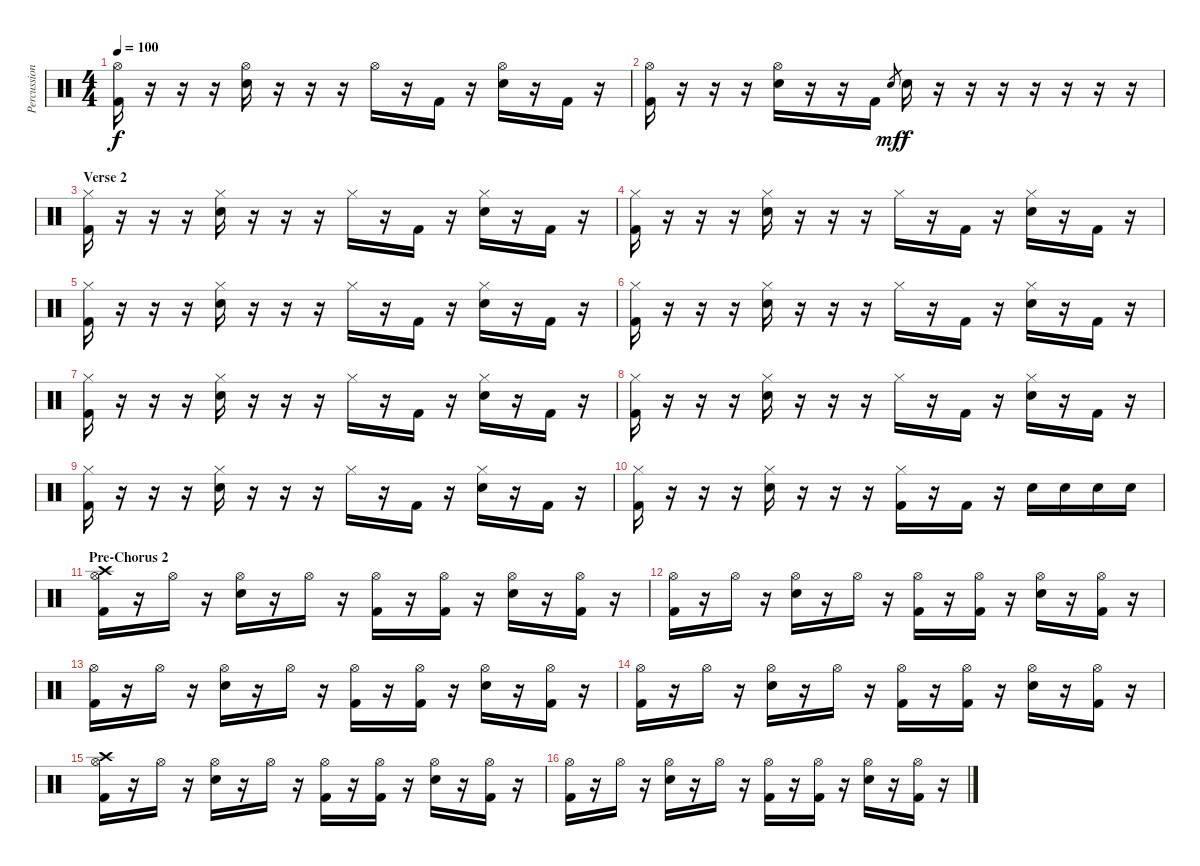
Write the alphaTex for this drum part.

\track ("Percussion" "Percussion") {instrument percussion}
\staff {score}
\articulation defaults
\ts (4 4)
\tempo 100
\clef neutral
\ks c
("Kick (hit) 2" "Hi-Hat (open)").16{dy f} r.16 r.16 r.16 ("Snare (hit) 2" "Hi-Hat (open)").16 r.16 r.16 r.16 "Hi-Hat (open)".16 r.16 "Kick (hit) 2".16 r.16 ("Snare (hit) 2" "Hi-Hat (open)").16 r.16 "Kick (hit) 2".16 r.16 |
("Kick (hit) 2" "Hi-Hat (open)").16 r.16 r.16 r.16 ("Snare (hit) 2" "Hi-Hat (open)").16 r.16 r.16 "Kick (hit) 2".16 "Snare (hit) 2".8{gr dy mf} "Snare (hit) 2".16{dy f} r.16 r.16 r.16 r.16 r.16 r.16 r.16 |
\section ("" "Verse 2")
("Kick (hit) 2" "Hi-Hat (closed)").16 r.16 r.16 r.16 ("Snare (hit) 2" "Hi-Hat (closed)").16 r.16 r.16 r.16 "Hi-Hat (closed)".16 r.16 "Kick (hit) 2".16 r.16 ("Snare (hit) 2" "Hi-Hat (closed)").16 r.16 "Kick (hit) 2".16 r.16 |
("Kick (hit) 2" "Hi-Hat (closed)").16 r.16 r.16 r.16 ("Snare (hit) 2" "Hi-Hat (closed)").16 r.16 r.16 r.16 "Hi-Hat (closed)".16 r.16 "Kick (hit) 2".16 r.16 ("Snare (hit) 2" "Hi-Hat (closed)").16 r.16 "Kick (hit) 2".16 r.16 |
("Kick (hit) 2" "Hi-Hat (closed)").16 r.16 r.16 r.16 ("Snare (hit) 2" "Hi-Hat (closed)").16 r.16 r.16 r.16 "Hi-Hat (closed)".16 r.16 "Kick (hit) 2".16 r.16 ("Snare (hit) 2" "Hi-Hat (closed)").16 r.16 "Kick (hit) 2".16 r.16 |
("Kick (hit) 2" "Hi-Hat (closed)").16 r.16 r.16 r.16 ("Snare (hit) 2" "Hi-Hat (closed)").16 r.16 r.16 r.16 "Hi-Hat (closed)".16 r.16 "Kick (hit) 2".16 r.16 ("Snare (hit) 2" "Hi-Hat (closed)").16 r.16 "Kick (hit) 2".16 r.16 |
("Kick (hit) 2" "Hi-Hat (closed)").16 r.16 r.16 r.16 ("Snare (hit) 2" "Hi-Hat (closed)").16 r.16 r.16 r.16 "Hi-Hat (closed)".16 r.16 "Kick (hit) 2".16 r.16 ("Snare (hit) 2" "Hi-Hat (closed)").16 r.16 "Kick (hit) 2".16 r.16 |
("Kick (hit) 2" "Hi-Hat (closed)").16 r.16 r.16 r.16 ("Snare (hit) 2" "Hi-Hat (closed)").16 r.16 r.16 r.16 "Hi-Hat (closed)".16 r.16 "Kick (hit) 2".16 r.16 ("Snare (hit) 2" "Hi-Hat (closed)").16 r.16 "Kick (hit) 2".16 r.16 |
("Kick (hit) 2" "Hi-Hat (closed)").16 r.16 r.16 r.16 ("Snare (hit) 2" "Hi-Hat (closed)").16 r.16 r.16 r.16 "Hi-Hat (closed)".16 r.16 "Kick (hit) 2".16 r.16 ("Snare (hit) 2" "Hi-Hat (closed)").16 r.16 "Kick (hit) 2".16 r.16 |
("Kick (hit) 2" "Hi-Hat (closed)").16 r.16 r.16 r.16 ("Snare (hit) 2" "Hi-Hat (closed)").16 r.16 r.16 r.16 ("Kick (hit) 2" "Hi-Hat (closed)").16 r.16 "Kick (hit) 2".16 r.16 "Snare (hit) 2".16 "Snare (hit) 2".16 "Snare (hit) 2".16 "Snare (hit) 2".16 |
\section ("" "Pre-Chorus 2")
("Kick (hit) 2" "Hi-Hat (open)" "Crash high (hit)").16 r.16 "Hi-Hat (open)".16 r.16 ("Snare (hit) 2" "Hi-Hat (open)").16 r.16 "Hi-Hat (open)".16 r.16 ("Kick (hit) 2" "Hi-Hat (open)").16 r.16 ("Kick (hit) 2" "Hi-Hat (open)").16 r.16 ("Snare (hit) 2" "Hi-Hat (open)").16 r.16 ("Kick (hit) 2" "Hi-Hat (open)").16 r.16 |
("Kick (hit) 2" "Hi-Hat (open)").16 r.16 "Hi-Hat (open)".16 r.16 ("Snare (hit) 2" "Hi-Hat (open)").16 r.16 "Hi-Hat (open)".16 r.16 ("Kick (hit) 2" "Hi-Hat (open)").16 r.16 ("Kick (hit) 2" "Hi-Hat (open)").16 r.16 ("Snare (hit) 2" "Hi-Hat (open)").16 r.16 ("Kick (hit) 2" "Hi-Hat (open)").16 r.16 |
("Kick (hit) 2" "Hi-Hat (open)").16 r.16 "Hi-Hat (open)".16 r.16 ("Snare (hit) 2" "Hi-Hat (open)").16 r.16 "Hi-Hat (open)".16 r.16 ("Kick (hit) 2" "Hi-Hat (open)").16 r.16 ("Kick (hit) 2" "Hi-Hat (open)").16 r.16 ("Snare (hit) 2" "Hi-Hat (open)").16 r.16 ("Kick (hit) 2" "Hi-Hat (open)").16 r.16 |
("Kick (hit) 2" "Hi-Hat (open)").16 r.16 "Hi-Hat (open)".16 r.16 ("Snare (hit) 2" "Hi-Hat (open)").16 r.16 "Hi-Hat (open)".16 r.16 ("Kick (hit) 2" "Hi-Hat (open)").16 r.16 ("Kick (hit) 2" "Hi-Hat (open)").16 r.16 ("Snare (hit) 2" "Hi-Hat (open)").16 r.16 ("Kick (hit) 2" "Hi-Hat (open)").16 r.16 |
("Kick (hit) 2" "Hi-Hat (open)" "Crash high (hit)").16 r.16 "Hi-Hat (open)".16 r.16 ("Snare (hit) 2" "Hi-Hat (open)").16 r.16 "Hi-Hat (open)".16 r.16 ("Kick (hit) 2" "Hi-Hat (open)").16 r.16 ("Kick (hit) 2" "Hi-Hat (open)").16 r.16 ("Snare (hit) 2" "Hi-Hat (open)").16 r.16 ("Kick (hit) 2" "Hi-Hat (open)").16 r.16 |
("Kick (hit) 2" "Hi-Hat (open)").16 r.16 "Hi-Hat (open)".16 r.16 ("Snare (hit) 2" "Hi-Hat (open)").16 r.16 "Hi-Hat (open)".16 r.16 ("Kick (hit) 2" "Hi-Hat (open)").16 r.16 ("Kick (hit) 2" "Hi-Hat (open)").16 r.16 ("Snare (hit) 2" "Hi-Hat (open)").16 r.16 ("Kick (hit) 2" "Hi-Hat (open)").16 r.16
